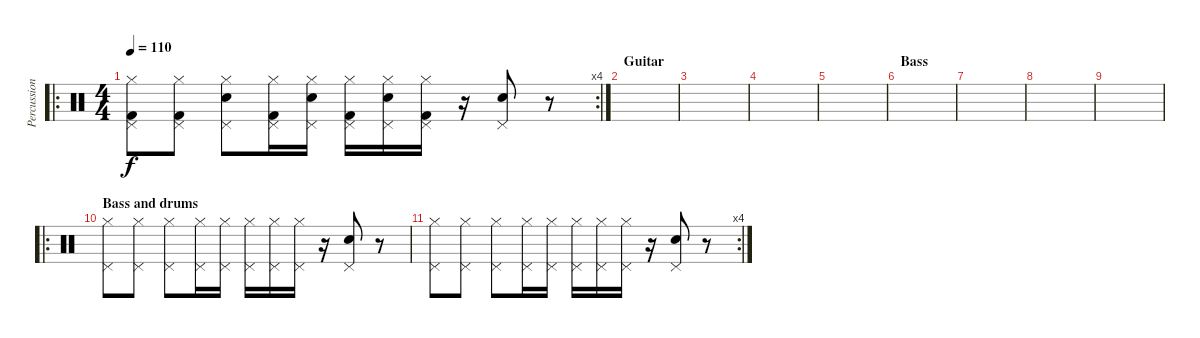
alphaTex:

\track ("Percussion" "Percussion") {instrument percussion}
\staff {score}
\articulation defaults
\ro
\rc 4
\ts (4 4)
\tempo 110
\clef neutral
\ks c
("Kick (hit) 2" "Pedal Hi-Hat (hit)" "Hi-Hat (closed)").8{dy f} ("Kick (hit) 2" "Pedal Hi-Hat (hit)" "Hi-Hat (closed)").8 ("Electric Snare (hit)" "Pedal Hi-Hat (hit)" "Hi-Hat (closed)").8 ("Kick (hit) 2" "Pedal Hi-Hat (hit)" "Hi-Hat (closed)").16 ("Electric Snare (hit)" "Pedal Hi-Hat (hit)" "Hi-Hat (closed)").16 ("Kick (hit) 2" "Pedal Hi-Hat (hit)" "Hi-Hat (closed)").16 ("Electric Snare (hit)" "Pedal Hi-Hat (hit)" "Hi-Hat (closed)").16 ("Kick (hit) 2" "Pedal Hi-Hat (hit)" "Hi-Hat (closed)").16 r.16 ("Pedal Hi-Hat (hit)" "Snare (hit) 2").8 r.8 |
\section ("" "Guitar")
|
|
|
|
\section ("" "Bass")
|
|
|
|
\ro
\section ("" "Bass and drums ")
("Pedal Hi-Hat (hit)" "Hi-Hat (closed)").8 ("Pedal Hi-Hat (hit)" "Hi-Hat (closed)").8 ("Pedal Hi-Hat (hit)" "Hi-Hat (closed)").8 ("Pedal Hi-Hat (hit)" "Hi-Hat (closed)").16 ("Pedal Hi-Hat (hit)" "Hi-Hat (closed)").16 ("Pedal Hi-Hat (hit)" "Hi-Hat (closed)").16 ("Pedal Hi-Hat (hit)" "Hi-Hat (closed)").16 ("Pedal Hi-Hat (hit)" "Hi-Hat (closed)").16 r.16 ("Pedal Hi-Hat (hit)" "Snare (hit) 2").8 r.8 |
\rc 4
("Pedal Hi-Hat (hit)" "Hi-Hat (closed)").8 ("Pedal Hi-Hat (hit)" "Hi-Hat (closed)").8 ("Pedal Hi-Hat (hit)" "Hi-Hat (closed)").8 ("Pedal Hi-Hat (hit)" "Hi-Hat (closed)").16 ("Pedal Hi-Hat (hit)" "Hi-Hat (closed)").16 ("Pedal Hi-Hat (hit)" "Hi-Hat (closed)").16 ("Pedal Hi-Hat (hit)" "Hi-Hat (closed)").16 ("Pedal Hi-Hat (hit)" "Hi-Hat (closed)").16 r.16 ("Pedal Hi-Hat (hit)" "Snare (hit) 2").8 r.8
